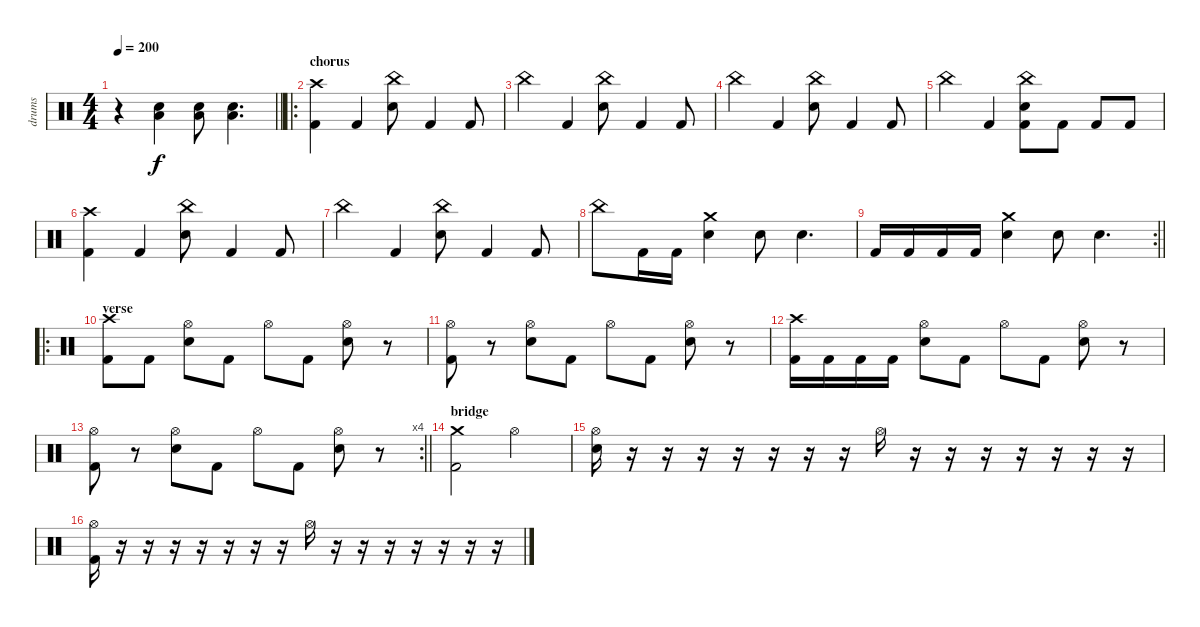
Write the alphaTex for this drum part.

\track ("drums" "drums") {instrument percussion}
\staff {score}
\articulation defaults
\ts (4 4)
\tempo 200
\clef neutral
\barLineRight lightlight
\ks c
r.4{dy f} ("Electric Snare (hit)" "Low Tom (hit)").4 ("Electric Snare (hit)" "Low Tom (hit)").8 ("Electric Snare (hit)" "Low Tom (hit)").4{d} |
\ro
\section ("" "chorus")
("Crash high (hit)" "Kick (hit) 2").4 "Kick (hit) 2".4 ("China (hit)" "Electric Snare (hit)").8 "Kick (hit) 2".4 "Kick (hit) 2".8 |
"China (hit)".4 "Kick (hit) 2".4 ("China (hit)" "Electric Snare (hit)").8 "Kick (hit) 2".4 "Kick (hit) 2".8 |
"China (hit)".4 "Kick (hit) 2".4 ("China (hit)" "Electric Snare (hit)").8 "Kick (hit) 2".4 "Kick (hit) 2".8 |
"China (hit)".4 "Kick (hit) 2".4 ("China (hit)" "Electric Snare (hit)" "Kick (hit) 2").8 "Kick (hit) 2".8 "Kick (hit) 2".8 "Kick (hit) 2".8 |
("Crash high (hit)" "Kick (hit) 2").4 "Kick (hit) 2".4 ("China (hit)" "Electric Snare (hit)").8 "Kick (hit) 2".4 "Kick (hit) 2".8 |
"China (hit)".4 "Kick (hit) 2".4 ("China (hit)" "Electric Snare (hit)").8 "Kick (hit) 2".4 "Kick (hit) 2".8 |
"China (hit)".8 "Kick (hit) 2".16 "Kick (hit) 2".16 ("Crash medium (hit)" "Electric Snare (hit)").4 "Electric Snare (hit)".8 "Electric Snare (hit)".4{d} |
\rc 2
\barLineRight lightlight "Kick (hit) 2".16 "Kick (hit) 2".16 "Kick (hit) 2".16 "Kick (hit) 2".16
("Crash medium (hit)" "Electric Snare (hit)").4 "Electric Snare (hit)".8 "Electric Snare (hit)".4{d} |
\ro
\section ("" "verse")
("Crash high (hit)" "Kick (hit) 2").8 "Kick (hit) 2".8 ("Hi-Hat (open)" "Electric Snare (hit)").8 "Kick (hit) 2".8 "Hi-Hat (open)".8 "Kick (hit) 2".8 ("Hi-Hat (open)" "Electric Snare (hit)").8 r.8 |
("Hi-Hat (open)" "Kick (hit) 2").8 r.8 ("Hi-Hat (open)" "Electric Snare (hit)").8 "Kick (hit) 2".8 "Hi-Hat (open)".8 "Kick (hit) 2".8 ("Hi-Hat (open)" "Electric Snare (hit)").8 r.8 |
("Crash high (hit)" "Kick (hit) 2").16 "Kick (hit) 2".16 "Kick (hit) 2".16 "Kick (hit) 2".16 ("Hi-Hat (open)" "Electric Snare (hit)").8 "Kick (hit) 2".8 "Hi-Hat (open)".8 "Kick (hit) 2".8 ("Hi-Hat (open)" "Electric Snare (hit)").8 r.8 |
\rc 4
\barLineRight lightlight
("Hi-Hat (open)" "Kick (hit) 2").8 r.8 ("Hi-Hat (open)" "Electric Snare (hit)").8 "Kick (hit) 2".8 "Hi-Hat (open)".8 "Kick (hit) 2".8 ("Hi-Hat (open)" "Electric Snare (hit)").8 r.8 |
\section ("" "bridge")
("Crash medium (hit)" "Kick (hit) 2").2 "Hi-Hat (open)".2 |
("Hi-Hat (open)" "Electric Snare (hit)").16 r.16 r.16 r.16 r.16 r.16 r.16 r.16 "Hi-Hat (open)".16 r.16 r.16 r.16 r.16 r.16 r.16 r.16 |
("Hi-Hat (open)" "Kick (hit) 2").16 r.16 r.16 r.16 r.16 r.16 r.16 r.16 "Hi-Hat (open)".16 r.16 r.16 r.16 r.16 r.16 r.16 r.16
